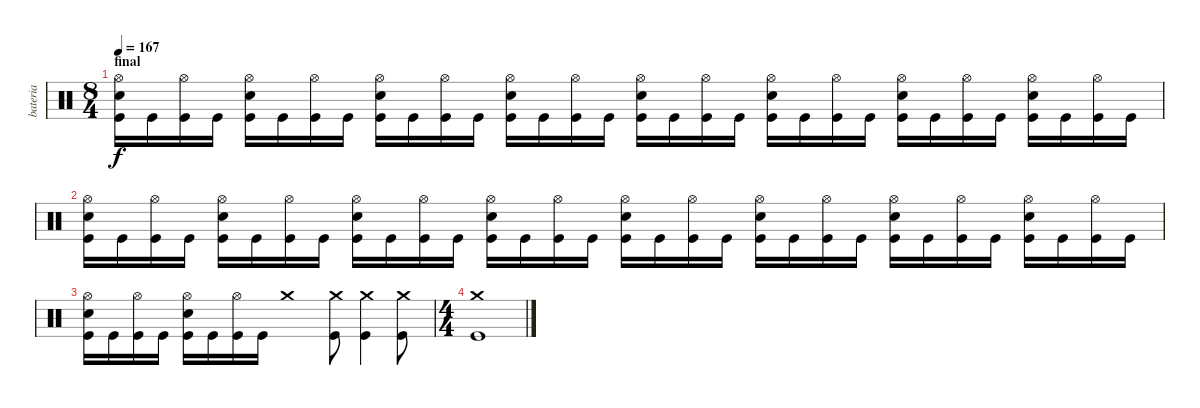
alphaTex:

\track ("bateria" "bateria") {instrument percussion}
\staff {score}
\articulation defaults
\ts (8 4)
\section ("" "final")
\tempo 167
\clef neutral
\ks c
("Hi-Hat (open)" "Snare (hit) 2" "Kick (hit)").16{dy f} "Kick (hit)".16 ("Hi-Hat (open)" "Kick (hit)").16 "Kick (hit)".16 ("Hi-Hat (open)" "Snare (hit) 2" "Kick (hit)").16 "Kick (hit)".16 ("Hi-Hat (open)" "Kick (hit)").16 "Kick (hit)".16 ("Hi-Hat (open)" "Snare (hit) 2" "Kick (hit)").16 "Kick (hit)".16 ("Hi-Hat (open)" "Kick (hit)").16 "Kick (hit)".16 ("Hi-Hat (open)" "Snare (hit) 2" "Kick (hit)").16 "Kick (hit)".16 ("Hi-Hat (open)" "Kick (hit)").16 "Kick (hit)".16 ("Hi-Hat (open)" "Snare (hit) 2" "Kick (hit)").16 "Kick (hit)".16 ("Hi-Hat (open)" "Kick (hit)").16 "Kick (hit)".16 ("Hi-Hat (open)" "Snare (hit) 2" "Kick (hit)").16 "Kick (hit)".16 ("Hi-Hat (open)" "Kick (hit)").16 "Kick (hit)".16 ("Hi-Hat (open)" "Snare (hit) 2" "Kick (hit)").16 "Kick (hit)".16 ("Hi-Hat (open)" "Kick (hit)").16 "Kick (hit)".16 ("Hi-Hat (open)" "Snare (hit) 2" "Kick (hit)").16 "Kick (hit)".16 ("Hi-Hat (open)" "Kick (hit)").16 "Kick (hit)".16 |
("Hi-Hat (open)" "Snare (hit) 2" "Kick (hit)").16 "Kick (hit)".16 ("Hi-Hat (open)" "Kick (hit)").16 "Kick (hit)".16 ("Hi-Hat (open)" "Snare (hit) 2" "Kick (hit)").16 "Kick (hit)".16 ("Hi-Hat (open)" "Kick (hit)").16 "Kick (hit)".16 ("Hi-Hat (open)" "Snare (hit) 2" "Kick (hit)").16 "Kick (hit)".16 ("Hi-Hat (open)" "Kick (hit)").16 "Kick (hit)".16 ("Hi-Hat (open)" "Snare (hit) 2" "Kick (hit)").16 "Kick (hit)".16 ("Hi-Hat (open)" "Kick (hit)").16 "Kick (hit)".16 ("Hi-Hat (open)" "Snare (hit) 2" "Kick (hit)").16 "Kick (hit)".16 ("Hi-Hat (open)" "Kick (hit)").16 "Kick (hit)".16 ("Hi-Hat (open)" "Snare (hit) 2" "Kick (hit)").16 "Kick (hit)".16 ("Hi-Hat (open)" "Kick (hit)").16 "Kick (hit)".16 ("Hi-Hat (open)" "Snare (hit) 2" "Kick (hit)").16 "Kick (hit)".16 ("Hi-Hat (open)" "Kick (hit)").16 "Kick (hit)".16 ("Hi-Hat (open)" "Snare (hit) 2" "Kick (hit)").16 "Kick (hit)".16 ("Hi-Hat (open)" "Kick (hit)").16 "Kick (hit)".16 |
("Hi-Hat (open)" "Snare (hit) 2" "Kick (hit)").16 "Kick (hit)".16 ("Hi-Hat (open)" "Kick (hit)").16 "Kick (hit)".16 ("Hi-Hat (open)" "Snare (hit) 2" "Kick (hit)").16 "Kick (hit)".16 ("Hi-Hat (open)" "Kick (hit)").16 "Kick (hit)".16 "Crash medium (hit)".1 ("Crash medium (hit)" "Kick (hit)").8 ("Crash medium (hit)" "Kick (hit)").4 ("Crash medium (hit)" "Kick (hit)").8 |
\ts (4 4)
("Crash medium (hit)" "Kick (hit)").1
